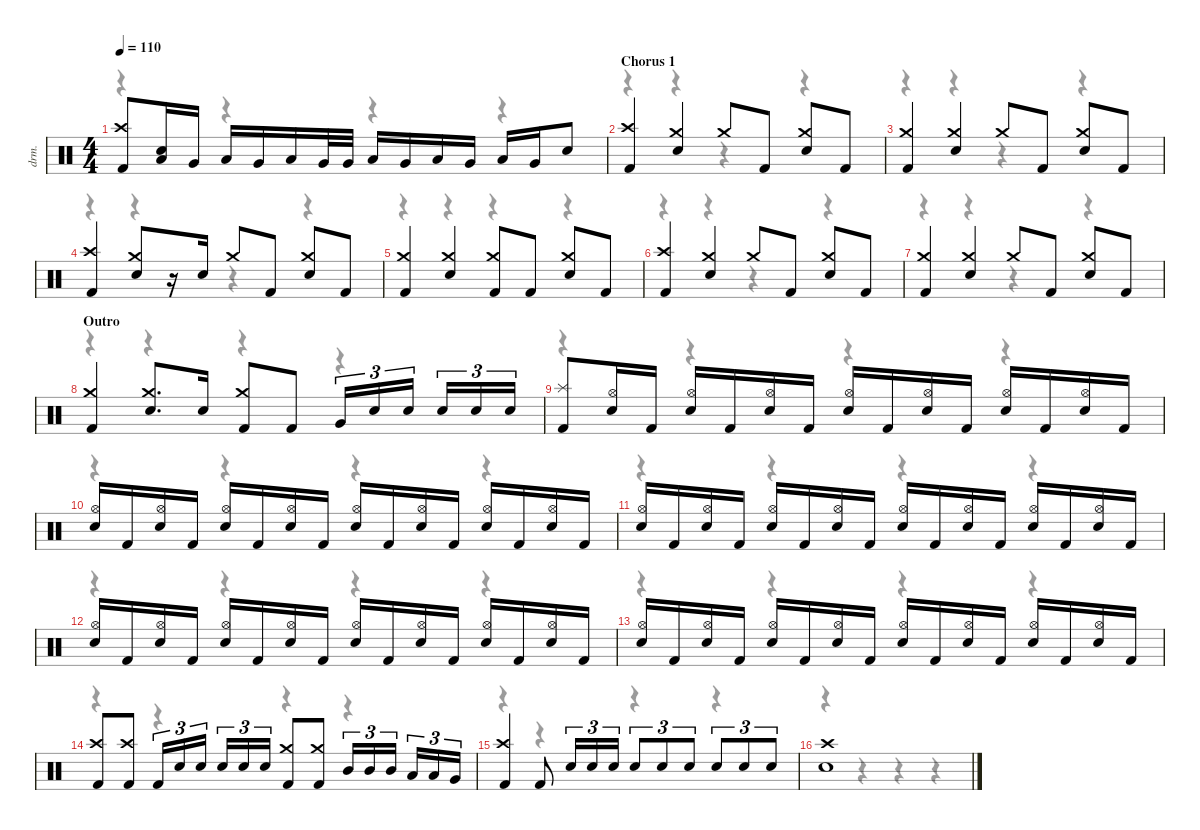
\defaultSystemsLayout 4
\hideDynamics
\bracketExtendMode nobrackets
\otherSystemsTrackNameOrientation horizontal
\track ("Drums" "drm.") {instrument percussion}
\staff {score}
\articulation defaults
\voice
\ts (4 4)
\tempo 110
\clef neutral
\ks c
("Crash high (hit)" "Kick (hit) 2").8{dy f beam Up} ("Low Tom (hit)" "Snare (hit) 2").16{beam Up} "Very Low Tom (hit)".16{beam Up} "Low Tom (hit)".16{beam Up} "Very Low Tom (hit)".16{beam Up} "Low Tom (hit)".16{beam Up} "Very Low Tom (hit)".32{beam Up} "Very Low Tom (hit)".32{beam Up} "Low Tom (hit)".16{beam Up} "Very Low Tom (hit)".16{beam Up} "Low Tom (hit)".16{beam Up} "Very Low Tom (hit)".16{beam Up} "Low Tom (hit)".16{beam Up} "Very Low Tom (hit)".16{beam Up} "Snare (hit) 2".8{beam Up} |
\section ("" "Chorus 1")
("Crash high (hit)" "Kick (hit) 2").4{beam Up} ("Crash medium (hit)" "Snare (hit) 2").4{beam Up} "Crash medium (hit)".8{beam Up} "Kick (hit) 2".8{beam Up} ("Crash medium (hit)" "Snare (hit) 2").8{beam Up} "Kick (hit) 2".8{beam Up} |
("Crash medium (hit)" "Kick (hit) 2").4{beam Up} ("Crash medium (hit)" "Snare (hit) 2").4{beam Up} "Crash medium (hit)".8{beam Up} "Kick (hit) 2".8{beam Up} ("Crash medium (hit)" "Snare (hit) 2").8{beam Up} "Kick (hit) 2".8{beam Up} |
("Crash high (hit)" "Kick (hit) 2").4{beam Up} ("Crash medium (hit)" "Snare (hit) 2").8{beam Up} r.16{beam Up} "Snare (hit) 2".16{beam Up} "Crash medium (hit)".8{beam Up} "Kick (hit) 2".8{beam Up} ("Crash medium (hit)" "Snare (hit) 2").8{beam Up} "Kick (hit) 2".8{beam Up} |
("Crash medium (hit)" "Kick (hit) 2").4{beam Up} ("Crash medium (hit)" "Snare (hit) 2").4{beam Up} ("Crash medium (hit)" "Kick (hit) 2").8{beam Up} "Kick (hit) 2".8{beam Up} ("Crash medium (hit)" "Snare (hit) 2").8{beam Up} "Kick (hit) 2".8{beam Up} |
("Crash high (hit)" "Kick (hit) 2").4{beam Up} ("Crash medium (hit)" "Snare (hit) 2").4{beam Up} "Crash medium (hit)".8{beam Up} "Kick (hit) 2".8{beam Up} ("Crash medium (hit)" "Snare (hit) 2").8{beam Up} "Kick (hit) 2".8{beam Up} |
("Crash medium (hit)" "Kick (hit) 2").4{beam Up} ("Crash medium (hit)" "Snare (hit) 2").4{beam Up} "Crash medium (hit)".8{beam Up} "Kick (hit) 2".8{beam Up} ("Crash medium (hit)" "Snare (hit) 2").8{beam Up} "Kick (hit) 2".8{beam Up} |
\section ("" "Outro")
("Crash medium (hit)" "Kick (hit) 2").4{beam Up} ("Crash medium (hit)" "Snare (hit) 2").8{d beam Up} "Snare (hit) 2".16{beam Up} ("Crash medium (hit)" "Kick (hit) 2").8{beam Up} "Kick (hit) 2".8{beam Up} "Very Low Tom (hit)".16{tu (3 2) beam Up} "Snare (hit) 2".16{tu (3 2) beam Up} "Snare (hit) 2".16{tu (3 2) beam Up} "Snare (hit) 2".16{tu (3 2) beam Up} "Snare (hit) 2".16{tu (3 2) beam Up} "Snare (hit) 2".16{tu (3 2) beam Up} |
("Splash (hit)" "Kick (hit) 2").8{beam Up} ("Hi-Hat (open)" "Snare (hit) 2").16{beam Up} "Kick (hit) 2".16{beam Up} ("Hi-Hat (open)" "Snare (hit) 2").16{beam Up} "Kick (hit) 2".16{beam Up} ("Hi-Hat (open)" "Snare (hit) 2").16{beam Up} "Kick (hit) 2".16{beam Up} ("Hi-Hat (open)" "Snare (hit) 2").16{beam Up} "Kick (hit) 2".16{beam Up} ("Hi-Hat (open)" "Snare (hit) 2").16{beam Up} "Kick (hit) 2".16{beam Up} ("Hi-Hat (open)" "Snare (hit) 2").16{beam Up} "Kick (hit) 2".16{beam Up} ("Hi-Hat (open)" "Snare (hit) 2").16{beam Up} "Kick (hit) 2".16{beam Up} |
("Hi-Hat (open)" "Snare (hit) 2").16{beam Up} "Kick (hit) 2".16{beam Up} ("Hi-Hat (open)" "Snare (hit) 2").16{beam Up} "Kick (hit) 2".16{beam Up} ("Hi-Hat (open)" "Snare (hit) 2").16{beam Up} "Kick (hit) 2".16{beam Up} ("Hi-Hat (open)" "Snare (hit) 2").16{beam Up} "Kick (hit) 2".16{beam Up} ("Hi-Hat (open)" "Snare (hit) 2").16{beam Up} "Kick (hit) 2".16{beam Up} ("Hi-Hat (open)" "Snare (hit) 2").16{beam Up} "Kick (hit) 2".16{beam Up} ("Hi-Hat (open)" "Snare (hit) 2").16{beam Up} "Kick (hit) 2".16{beam Up} ("Hi-Hat (open)" "Snare (hit) 2").16{beam Up} "Kick (hit) 2".16{beam Up} |
("Hi-Hat (open)" "Snare (hit) 2").16{beam Up} "Kick (hit) 2".16{beam Up} ("Hi-Hat (open)" "Snare (hit) 2").16{beam Up} "Kick (hit) 2".16{beam Up} ("Hi-Hat (open)" "Snare (hit) 2").16{beam Up} "Kick (hit) 2".16{beam Up} ("Hi-Hat (open)" "Snare (hit) 2").16{beam Up} "Kick (hit) 2".16{beam Up} ("Hi-Hat (open)" "Snare (hit) 2").16{beam Up} "Kick (hit) 2".16{beam Up} ("Hi-Hat (open)" "Snare (hit) 2").16{beam Up} "Kick (hit) 2".16{beam Up} ("Hi-Hat (open)" "Snare (hit) 2").16{beam Up} "Kick (hit) 2".16{beam Up} ("Hi-Hat (open)" "Snare (hit) 2").16{beam Up} "Kick (hit) 2".16{beam Up} |
("Hi-Hat (open)" "Snare (hit) 2").16{beam Up} "Kick (hit) 2".16{beam Up} ("Hi-Hat (open)" "Snare (hit) 2").16{beam Up} "Kick (hit) 2".16{beam Up} ("Hi-Hat (open)" "Snare (hit) 2").16{beam Up} "Kick (hit) 2".16{beam Up} ("Hi-Hat (open)" "Snare (hit) 2").16{beam Up} "Kick (hit) 2".16{beam Up} ("Hi-Hat (open)" "Snare (hit) 2").16{beam Up} "Kick (hit) 2".16{beam Up} ("Hi-Hat (open)" "Snare (hit) 2").16{beam Up} "Kick (hit) 2".16{beam Up} ("Hi-Hat (open)" "Snare (hit) 2").16{beam Up} "Kick (hit) 2".16{beam Up} ("Hi-Hat (open)" "Snare (hit) 2").16{beam Up} "Kick (hit) 2".16{beam Up} |
("Hi-Hat (open)" "Snare (hit) 2").16{beam Up} "Kick (hit) 2".16{beam Up} ("Hi-Hat (open)" "Snare (hit) 2").16{beam Up} "Kick (hit) 2".16{beam Up} ("Hi-Hat (open)" "Snare (hit) 2").16{beam Up} "Kick (hit) 2".16{beam Up} ("Hi-Hat (open)" "Snare (hit) 2").16{beam Up} "Kick (hit) 2".16{beam Up} ("Hi-Hat (open)" "Snare (hit) 2").16{beam Up} "Kick (hit) 2".16{beam Up} ("Hi-Hat (open)" "Snare (hit) 2").16{beam Up} "Kick (hit) 2".16{beam Up} ("Hi-Hat (open)" "Snare (hit) 2").16{beam Up} "Kick (hit) 2".16{beam Up} ("Hi-Hat (open)" "Snare (hit) 2").16{beam Up} "Kick (hit) 2".16{beam Up} |
("Crash high (hit)" "Kick (hit) 2").8{beam Up} ("Crash high (hit)" "Kick (hit) 2").8{beam Up} "Kick (hit) 2".16{tu (3 2) beam Up} "Snare (hit) 2".16{tu (3 2) beam Up} "Snare (hit) 2".16{tu (3 2) beam Up} "Snare (hit) 2".16{tu (3 2) beam Up} "Snare (hit) 2".16{tu (3 2) beam Up} "Snare (hit) 2".16{tu (3 2) beam Up} ("Crash medium (hit)" "Kick (hit) 2").8{beam Up} ("Crash medium (hit)" "Kick (hit) 2").8{beam Up} "Mid Tom (hit)".16{tu (3 2) beam Up} "Mid Tom (hit)".16{tu (3 2) beam Up} "Mid Tom (hit)".16{tu (3 2) beam Up} "Low Tom (hit)".16{tu (3 2) beam Up} "Low Tom (hit)".16{tu (3 2) beam Up} "Very Low Tom (hit)".16{tu (3 2) beam Up} |
("Crash high (hit)" "Kick (hit) 2").4{beam Up} "Kick (hit) 2".8{beam Up} "Snare (hit) 2".16{tu (3 2) beam Up} "Snare (hit) 2".16{tu (3 2) beam Up} "Snare (hit) 2".16{tu (3 2) beam Up} "Snare (hit) 2".8{tu (3 2) beam Up} "Snare (hit) 2".8{tu (3 2) beam Up} "Snare (hit) 2".8{tu (3 2) beam Up} "Snare (hit) 2".8{tu (3 2) beam Up} "Snare (hit) 2".8{tu (3 2) beam Up} "Snare (hit) 2".8{tu (3 2) beam Up} |
("Crash high (hit)" "Snare (hit) 2").1{beam Up}
\voice
\clef neutral
\ottava regular
\simile none
\ks c
r.4{dy mf beam Down} r.4{beam Down} r.4{beam Down} r.4{beam Down} |
r.4{beam Down} r.4{beam Down} r.4{beam Down} r.4{beam Down} |
r.4{beam Down} r.4{beam Down} r.4{beam Down} r.4{beam Down} |
r.4{beam Down} r.4{beam Down} r.4{beam Down} r.4{beam Down} |
r.4{beam Down} r.4{beam Down} r.4{beam Down} r.4{beam Down} |
r.4{beam Down} r.4{beam Down} r.4{beam Down} r.4{beam Down} |
r.4{beam Down} r.4{beam Down} r.4{beam Down} r.4{beam Down} |
r.4{beam Down} r.4{beam Down} r.4{beam Down} r.4{beam Down} |
r.4{beam Down} r.4{beam Down} r.4{beam Down} r.4{beam Down} |
r.4{beam Down} r.4{beam Down} r.4{beam Down} r.4{beam Down} |
r.4{beam Down} r.4{beam Down} r.4{beam Down} r.4{beam Down} |
r.4{beam Down} r.4{beam Down} r.4{beam Down} r.4{beam Down} |
r.4{beam Down} r.4{beam Down} r.4{beam Down} r.4{beam Down} |
r.4{beam Down} r.4{beam Down} r.4{beam Down} r.4{beam Down} |
r.4{beam Down} r.4{beam Down} r.4{beam Down} r.4{beam Down} |
r.4{beam Down} r.4{beam Down} r.4{beam Down} r.4{beam Down}
